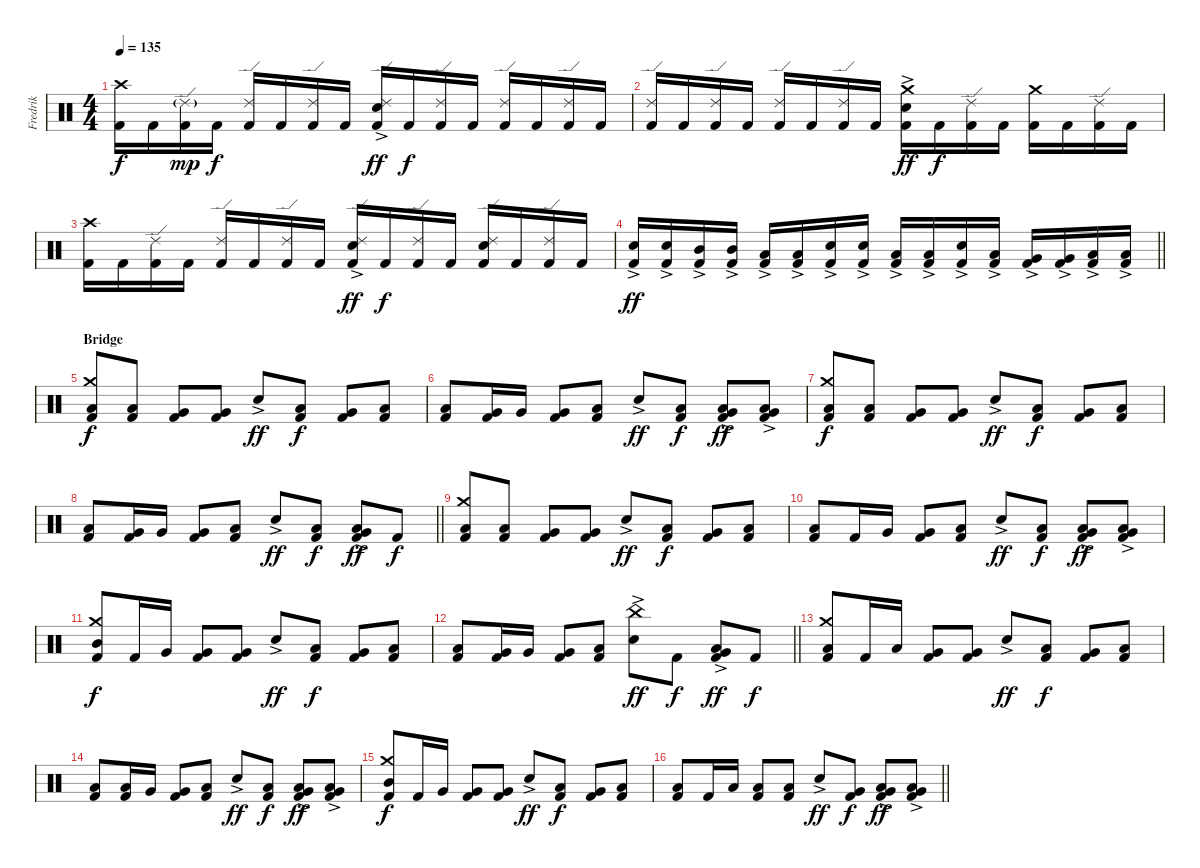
\track ("Fredrik" "Fredrik") {instrument percussion}
\staff {score}
\articulation defaults
\ts (4 4)
\section ("" "")
\tempo 135
\clef neutral
\ks c
("Kick (hit) 2" "Crash high (hit)").16{dy f} "Kick (hit) 2".16 ("Kick (hit) 2" "Ride (edge) 2"{g}).16{dy mp} "Kick (hit) 2".16{dy f} ("Kick (hit) 2" "Ride (edge) 2").16 "Kick (hit) 2".16 ("Kick (hit) 2" "Ride (edge) 2").16 "Kick (hit) 2".16 ("Kick (hit) 2" "Snare (hit) 2"{ac} "Ride (edge) 2").16{dy ff} "Kick (hit) 2".16{dy f} ("Kick (hit) 2" "Ride (edge) 2").16 "Kick (hit) 2".16 ("Kick (hit) 2" "Ride (edge) 2").16 "Kick (hit) 2".16 ("Kick (hit) 2" "Ride (edge) 2").16 "Kick (hit) 2".16 |
("Kick (hit) 2" "Ride (edge) 2").16 "Kick (hit) 2".16 ("Kick (hit) 2" "Ride (edge) 2").16 "Kick (hit) 2".16 ("Kick (hit) 2" "Ride (edge) 2").16 "Kick (hit) 2".16 ("Kick (hit) 2" "Ride (edge) 2").16 "Kick (hit) 2".16 ("Kick (hit) 2" "Snare (hit) 2"{ac} "Crash medium (hit)").16{dy ff} "Kick (hit) 2".16{dy f} ("Kick (hit) 2" "Ride (edge) 2").16 "Kick (hit) 2".16 ("Kick (hit) 2" "Crash medium (hit)").16 "Kick (hit) 2".16 ("Kick (hit) 2" "Ride (edge) 2").16 "Kick (hit) 2".16 |
("Kick (hit) 2" "Crash high (hit)").16 "Kick (hit) 2".16 ("Kick (hit) 2" "Ride (edge) 2").16 "Kick (hit) 2".16 ("Kick (hit) 2" "Ride (edge) 2").16 "Kick (hit) 2".16 ("Kick (hit) 2" "Ride (edge) 2").16 "Kick (hit) 2".16 ("Kick (hit) 2" "Snare (hit) 2"{ac} "Ride (edge) 2").16{dy ff} "Kick (hit) 2".16{dy f} ("Kick (hit) 2" "Ride (edge) 2").16 "Kick (hit) 2".16 ("Kick (hit) 2" "Snare (hit) 2" "Ride (edge) 2").16 "Kick (hit) 2".16 ("Kick (hit) 2" "Ride (edge) 2").16 "Kick (hit) 2".16 |
\barLineRight lightlight
("Kick (hit) 2" "Snare (hit) 2"{ac}).16{dy ff} ("Kick (hit) 2" "Snare (hit) 2"{ac}).16 ("Kick (hit) 2" "Mid Tom (hit)"{ac}).16 ("Kick (hit) 2" "Mid Tom (hit)"{ac}).16 ("Kick (hit) 2" "Low Tom (hit)"{ac}).16 ("Kick (hit) 2" "Low Tom (hit)"{ac}).16 ("Kick (hit) 2" "Snare (hit) 2"{ac}).16 ("Kick (hit) 2" "Snare (hit) 2"{ac}).16 ("Kick (hit) 2" "Low Tom (hit)"{ac}).16 ("Kick (hit) 2" "Low Tom (hit)"{ac}).16 ("Kick (hit) 2" "Snare (hit) 2"{ac}).16 ("Kick (hit) 2" "Low Tom (hit)"{ac}).16 ("Kick (hit) 2" "Very Low Tom (hit)"{ac}).16 ("Kick (hit) 2" "Very Low Tom (hit)"{ac}).16 ("Kick (hit) 2" "Low Floor Tom (hit)"{ac}).16 ("Kick (hit) 2" "Low Floor Tom (hit)"{ac}).16 |
\section ("" "Bridge")
("Kick (hit) 2" "Low Tom (hit)" "Crash medium (hit)").8{dy f} ("Kick (hit) 2" "Low Tom (hit)").8 ("Kick (hit) 2" "Very Low Tom (hit)").8 ("Kick (hit) 2" "Very Low Tom (hit)").8 "Snare (hit) 2"{ac}.8{dy ff} ("Kick (hit) 2" "Low Tom (hit)").8{dy f} ("Kick (hit) 2" "Very Low Tom (hit)").8 ("Kick (hit) 2" "Low Floor Tom (hit)").8 |
("Kick (hit) 2" "Low Tom (hit)").8 ("Kick (hit) 2" "Very Low Tom (hit)").16 "Very Low Tom (hit)".16 ("Kick (hit) 2" "Very Low Tom (hit)").8 ("Kick (hit) 2" "Low Floor Tom (hit)").8 "Snare (hit) 2"{ac}.8{dy ff} ("Kick (hit) 2" "Low Tom (hit)").8{dy f} ("Kick (hit) 2" "Very Low Tom (hit)" "Low Floor Tom (hit)"{ac}).8{dy ff} ("Kick (hit) 2" "Very Low Tom (hit)"{ac} "Low Floor Tom (hit)"{ac}).8 |
("Kick (hit) 2" "Low Tom (hit)" "Crash medium (hit)").8{dy f} ("Kick (hit) 2" "Low Tom (hit)").8 ("Kick (hit) 2" "Very Low Tom (hit)").8 ("Kick (hit) 2" "Very Low Tom (hit)").8 "Snare (hit) 2"{ac}.8{dy ff} ("Kick (hit) 2" "Low Tom (hit)").8{dy f} ("Kick (hit) 2" "Very Low Tom (hit)").8 ("Kick (hit) 2" "Low Floor Tom (hit)").8 |
\barLineRight lightlight
("Kick (hit) 2" "Low Tom (hit)").8 ("Kick (hit) 2" "Very Low Tom (hit)").16 "Very Low Tom (hit)".16 ("Kick (hit) 2" "Very Low Tom (hit)").8 ("Kick (hit) 2" "Low Floor Tom (hit)").8 "Snare (hit) 2"{ac}.8{dy ff} ("Kick (hit) 2" "Low Tom (hit)").8{dy f} ("Kick (hit) 2" "Very Low Tom (hit)" "Low Floor Tom (hit)"{ac}).8{dy ff} "Kick (hit) 2".8{dy f} |
\section ("" "")
("Kick (hit) 2" "Low Tom (hit)" "Crash medium (hit)").8 ("Kick (hit) 2" "Low Tom (hit)").8 ("Kick (hit) 2" "Very Low Tom (hit)").8 ("Kick (hit) 2" "Very Low Tom (hit)").8 "Snare (hit) 2"{ac}.8{dy ff} ("Kick (hit) 2" "Low Tom (hit)").8{dy f} ("Kick (hit) 2" "Very Low Tom (hit)").8 ("Kick (hit) 2" "Low Floor Tom (hit)").8 |
("Kick (hit) 2" "Low Tom (hit)").8 "Kick (hit) 2".16 "Very Low Tom (hit)".16 ("Kick (hit) 2" "Very Low Tom (hit)").8 ("Kick (hit) 2" "Low Floor Tom (hit)").8 "Snare (hit) 2"{ac}.8{dy ff} ("Kick (hit) 2" "Low Tom (hit)").8{dy f} ("Kick (hit) 2" "Very Low Tom (hit)" "Low Floor Tom (hit)"{ac}).8{dy ff} ("Kick (hit) 2" "Very Low Tom (hit)"{ac} "Low Floor Tom (hit)"{ac}).8 |
("Kick (hit) 2" "Mid Tom (hit)" "Crash medium (hit)").8{dy f} "Kick (hit) 2".16 "Very Low Tom (hit)".16 ("Kick (hit) 2" "Very Low Tom (hit)").8 ("Kick (hit) 2" "Very Low Tom (hit)").8 "Snare (hit) 2"{ac}.8{dy ff} ("Kick (hit) 2" "Low Tom (hit)").8{dy f} ("Kick (hit) 2" "Very Low Tom (hit)").8 ("Kick (hit) 2" "Low Floor Tom (hit)").8 |
\barLineRight lightlight
("Kick (hit) 2" "Low Tom (hit)").8 ("Kick (hit) 2" "Very Low Tom (hit)").16 "Very Low Tom (hit)".16 ("Kick (hit) 2" "Very Low Tom (hit)").8 ("Kick (hit) 2" "Low Floor Tom (hit)").8 ("Snare (hit) 2"{ac} "China (hit)").8{dy ff} "Kick (hit) 2".8{dy f} ("Kick (hit) 2" "Very Low Tom (hit)" "Low Floor Tom (hit)"{ac}).8{dy ff} "Kick (hit) 2".8{dy f} |
\section ("" "")
("Kick (hit) 2" "Low Tom (hit)" "Crash medium (hit)").8 "Kick (hit) 2".16 "Low Floor Tom (hit)".16 ("Kick (hit) 2" "Very Low Tom (hit)").8 ("Kick (hit) 2" "Very Low Tom (hit)").8 "Snare (hit) 2"{ac}.8{dy ff} ("Kick (hit) 2" "Low Tom (hit)").8{dy f} ("Kick (hit) 2" "Very Low Tom (hit)").8 ("Kick (hit) 2" "Low Floor Tom (hit)").8 |
("Kick (hit) 2" "Low Tom (hit)").8 ("Kick (hit) 2" "Low Tom (hit)").16 "Very Low Tom (hit)".16 ("Kick (hit) 2" "Very Low Tom (hit)").8 ("Kick (hit) 2" "Low Floor Tom (hit)").8 "Snare (hit) 2"{ac}.8{dy ff} ("Kick (hit) 2" "Low Tom (hit)").8{dy f} ("Kick (hit) 2" "Very Low Tom (hit)" "Low Floor Tom (hit)"{ac}).8{dy ff} ("Kick (hit) 2" "Very Low Tom (hit)"{ac} "Low Floor Tom (hit)"{ac}).8 |
("Kick (hit) 2" "Mid Tom (hit)" "Crash medium (hit)").8{dy f} "Kick (hit) 2".16 "Very Low Tom (hit)".16 ("Kick (hit) 2" "Very Low Tom (hit)").8 ("Kick (hit) 2" "Very Low Tom (hit)").8 "Snare (hit) 2"{ac}.8{dy ff} ("Kick (hit) 2" "Low Tom (hit)").8{dy f} ("Kick (hit) 2" "Very Low Tom (hit)").8 ("Kick (hit) 2" "Low Floor Tom (hit)").8 |
\barLineRight lightlight
("Kick (hit) 2" "Low Floor Tom (hit)").8 "Kick (hit) 2".16 "Low Floor Tom (hit)".16 ("Kick (hit) 2" "Low Floor Tom (hit)").8 ("Kick (hit) 2" "Low Floor Tom (hit)").8 "Snare (hit) 2"{ac}.8{dy ff} ("Kick (hit) 2" "Very Low Tom (hit)").8{dy f} ("Kick (hit) 2" "Very Low Tom (hit)" "Low Floor Tom (hit)"{ac}).8{dy ff} ("Kick (hit) 2" "Very Low Tom (hit)"{ac} "Low Floor Tom (hit)").8
